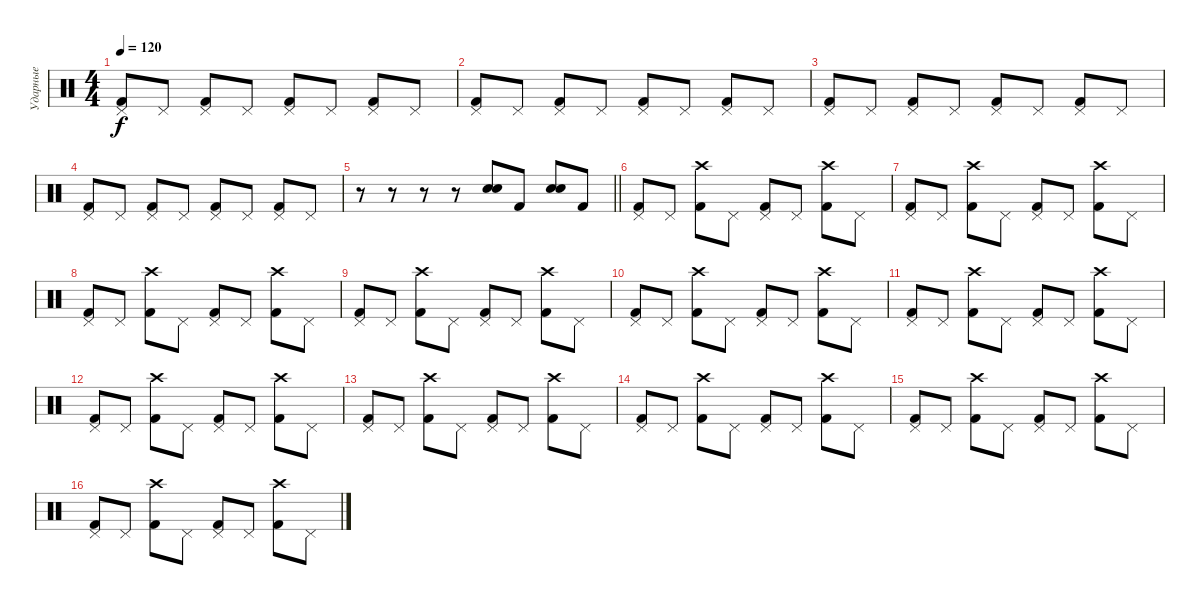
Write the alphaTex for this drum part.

\track ("Ударные" "Ударные") {instrument percussion}
\staff {score}
\articulation defaults
\ts (4 4)
\tempo 120
\clef neutral
\ks c
("Pedal Hi-Hat (hit)" "Kick (hit) 2").8{dy f} "Pedal Hi-Hat (hit)".8 ("Pedal Hi-Hat (hit)" "Kick (hit) 2").8 "Pedal Hi-Hat (hit)".8 ("Pedal Hi-Hat (hit)" "Kick (hit) 2").8 "Pedal Hi-Hat (hit)".8 ("Pedal Hi-Hat (hit)" "Kick (hit) 2").8 "Pedal Hi-Hat (hit)".8 |
("Pedal Hi-Hat (hit)" "Kick (hit) 2").8 "Pedal Hi-Hat (hit)".8 ("Pedal Hi-Hat (hit)" "Kick (hit) 2").8 "Pedal Hi-Hat (hit)".8 ("Pedal Hi-Hat (hit)" "Kick (hit) 2").8 "Pedal Hi-Hat (hit)".8 ("Pedal Hi-Hat (hit)" "Kick (hit) 2").8 "Pedal Hi-Hat (hit)".8 |
("Pedal Hi-Hat (hit)" "Kick (hit) 2").8 "Pedal Hi-Hat (hit)".8 ("Pedal Hi-Hat (hit)" "Kick (hit) 2").8 "Pedal Hi-Hat (hit)".8 ("Pedal Hi-Hat (hit)" "Kick (hit) 2").8 "Pedal Hi-Hat (hit)".8 ("Pedal Hi-Hat (hit)" "Kick (hit) 2").8 "Pedal Hi-Hat (hit)".8 |
("Pedal Hi-Hat (hit)" "Kick (hit) 2").8 "Pedal Hi-Hat (hit)".8 ("Pedal Hi-Hat (hit)" "Kick (hit) 2").8 "Pedal Hi-Hat (hit)".8 ("Pedal Hi-Hat (hit)" "Kick (hit) 2").8 "Pedal Hi-Hat (hit)".8 ("Pedal Hi-Hat (hit)" "Kick (hit) 2").8 "Pedal Hi-Hat (hit)".8 |
\barLineRight lightlight
r.8 r.8 r.8 r.8 ("Snare (hit) 2" "Electric Snare (hit)").8 "Kick (hit) 2".8 ("Snare (hit) 2" "Electric Snare (hit)").8 "Kick (hit) 2".8 |
("Pedal Hi-Hat (hit)" "Kick (hit) 2").8 "Pedal Hi-Hat (hit)".8 ("Crash high (hit)" "Kick (hit) 2").8 "Pedal Hi-Hat (hit)".8 ("Pedal Hi-Hat (hit)" "Kick (hit) 2").8 "Pedal Hi-Hat (hit)".8 ("Crash high (hit)" "Kick (hit) 2").8 "Pedal Hi-Hat (hit)".8 |
("Pedal Hi-Hat (hit)" "Kick (hit) 2").8 "Pedal Hi-Hat (hit)".8 ("Crash high (hit)" "Kick (hit) 2").8 "Pedal Hi-Hat (hit)".8 ("Pedal Hi-Hat (hit)" "Kick (hit) 2").8 "Pedal Hi-Hat (hit)".8 ("Crash high (hit)" "Kick (hit) 2").8 "Pedal Hi-Hat (hit)".8 |
("Pedal Hi-Hat (hit)" "Kick (hit) 2").8 "Pedal Hi-Hat (hit)".8 ("Crash high (hit)" "Kick (hit) 2").8 "Pedal Hi-Hat (hit)".8 ("Pedal Hi-Hat (hit)" "Kick (hit) 2").8 "Pedal Hi-Hat (hit)".8 ("Crash high (hit)" "Kick (hit) 2").8 "Pedal Hi-Hat (hit)".8 |
("Pedal Hi-Hat (hit)" "Kick (hit) 2").8 "Pedal Hi-Hat (hit)".8 ("Crash high (hit)" "Kick (hit) 2").8 "Pedal Hi-Hat (hit)".8 ("Pedal Hi-Hat (hit)" "Kick (hit) 2").8 "Pedal Hi-Hat (hit)".8 ("Crash high (hit)" "Kick (hit) 2").8 "Pedal Hi-Hat (hit)".8 |
("Pedal Hi-Hat (hit)" "Kick (hit) 2").8 "Pedal Hi-Hat (hit)".8 ("Crash high (hit)" "Kick (hit) 2").8 "Pedal Hi-Hat (hit)".8 ("Pedal Hi-Hat (hit)" "Kick (hit) 2").8 "Pedal Hi-Hat (hit)".8 ("Crash high (hit)" "Kick (hit) 2").8 "Pedal Hi-Hat (hit)".8 |
("Pedal Hi-Hat (hit)" "Kick (hit) 2").8 "Pedal Hi-Hat (hit)".8 ("Crash high (hit)" "Kick (hit) 2").8 "Pedal Hi-Hat (hit)".8 ("Pedal Hi-Hat (hit)" "Kick (hit) 2").8 "Pedal Hi-Hat (hit)".8 ("Crash high (hit)" "Kick (hit) 2").8 "Pedal Hi-Hat (hit)".8 |
("Pedal Hi-Hat (hit)" "Kick (hit) 2").8 "Pedal Hi-Hat (hit)".8 ("Crash high (hit)" "Kick (hit) 2").8 "Pedal Hi-Hat (hit)".8 ("Pedal Hi-Hat (hit)" "Kick (hit) 2").8 "Pedal Hi-Hat (hit)".8 ("Crash high (hit)" "Kick (hit) 2").8 "Pedal Hi-Hat (hit)".8 |
("Pedal Hi-Hat (hit)" "Kick (hit) 2").8 "Pedal Hi-Hat (hit)".8 ("Crash high (hit)" "Kick (hit) 2").8 "Pedal Hi-Hat (hit)".8 ("Pedal Hi-Hat (hit)" "Kick (hit) 2").8 "Pedal Hi-Hat (hit)".8 ("Crash high (hit)" "Kick (hit) 2").8 "Pedal Hi-Hat (hit)".8 |
("Pedal Hi-Hat (hit)" "Kick (hit) 2").8 "Pedal Hi-Hat (hit)".8 ("Crash high (hit)" "Kick (hit) 2").8 "Pedal Hi-Hat (hit)".8 ("Pedal Hi-Hat (hit)" "Kick (hit) 2").8 "Pedal Hi-Hat (hit)".8 ("Crash high (hit)" "Kick (hit) 2").8 "Pedal Hi-Hat (hit)".8 |
("Pedal Hi-Hat (hit)" "Kick (hit) 2").8 "Pedal Hi-Hat (hit)".8 ("Crash high (hit)" "Kick (hit) 2").8 "Pedal Hi-Hat (hit)".8 ("Pedal Hi-Hat (hit)" "Kick (hit) 2").8 "Pedal Hi-Hat (hit)".8 ("Crash high (hit)" "Kick (hit) 2").8 "Pedal Hi-Hat (hit)".8 |
("Pedal Hi-Hat (hit)" "Kick (hit) 2").8 "Pedal Hi-Hat (hit)".8 ("Crash high (hit)" "Kick (hit) 2").8 "Pedal Hi-Hat (hit)".8 ("Pedal Hi-Hat (hit)" "Kick (hit) 2").8 "Pedal Hi-Hat (hit)".8 ("Crash high (hit)" "Kick (hit) 2").8 "Pedal Hi-Hat (hit)".8
